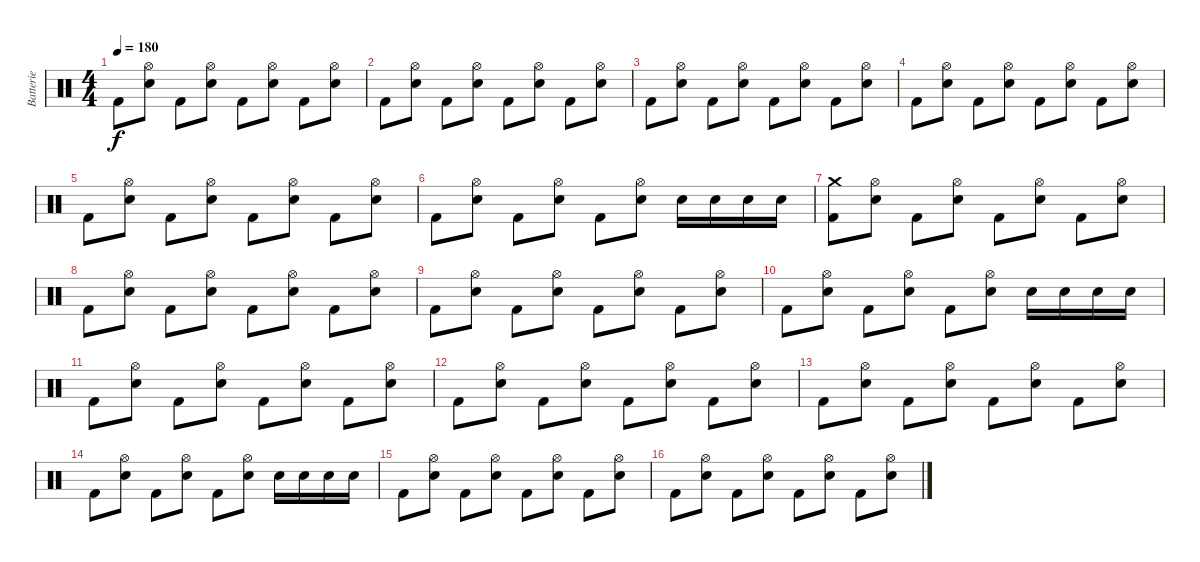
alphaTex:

\track ("Batterie" "Batterie") {instrument percussion}
\staff {score}
\articulation defaults
\ts (4 4)
\tempo 180
\clef neutral
\ks c "Kick (hit) 2".8{dy f}
("Electric Snare (hit)" "Hi-Hat (open)").8 "Kick (hit) 2".8 ("Electric Snare (hit)" "Hi-Hat (open)").8 "Kick (hit) 2".8 ("Electric Snare (hit)" "Hi-Hat (open)").8 "Kick (hit) 2".8 ("Electric Snare (hit)" "Hi-Hat (open)").8 |
"Kick (hit) 2".8 ("Electric Snare (hit)" "Hi-Hat (open)").8 "Kick (hit) 2".8 ("Electric Snare (hit)" "Hi-Hat (open)").8 "Kick (hit) 2".8 ("Electric Snare (hit)" "Hi-Hat (open)").8 "Kick (hit) 2".8 ("Electric Snare (hit)" "Hi-Hat (open)").8 |
"Kick (hit) 2".8 ("Electric Snare (hit)" "Hi-Hat (open)").8 "Kick (hit) 2".8 ("Electric Snare (hit)" "Hi-Hat (open)").8 "Kick (hit) 2".8 ("Electric Snare (hit)" "Hi-Hat (open)").8 "Kick (hit) 2".8 ("Electric Snare (hit)" "Hi-Hat (open)").8 |
"Kick (hit) 2".8 ("Electric Snare (hit)" "Hi-Hat (open)").8 "Kick (hit) 2".8 ("Electric Snare (hit)" "Hi-Hat (open)").8 "Kick (hit) 2".8 ("Electric Snare (hit)" "Hi-Hat (open)").8 "Kick (hit) 2".8 ("Electric Snare (hit)" "Hi-Hat (open)").8 |
"Kick (hit) 2".8 ("Electric Snare (hit)" "Hi-Hat (open)").8 "Kick (hit) 2".8 ("Electric Snare (hit)" "Hi-Hat (open)").8 "Kick (hit) 2".8 ("Electric Snare (hit)" "Hi-Hat (open)").8 "Kick (hit) 2".8 ("Electric Snare (hit)" "Hi-Hat (open)").8 |
"Kick (hit) 2".8 ("Electric Snare (hit)" "Hi-Hat (open)").8 "Kick (hit) 2".8 ("Electric Snare (hit)" "Hi-Hat (open)").8 "Kick (hit) 2".8 ("Electric Snare (hit)" "Hi-Hat (open)").8 "Electric Snare (hit)".16 "Electric Snare (hit)".16 "Electric Snare (hit)".16 "Electric Snare (hit)".16 |
("Kick (hit) 2" "Crash medium (hit)").8 ("Electric Snare (hit)" "Hi-Hat (open)").8 "Kick (hit) 2".8 ("Electric Snare (hit)" "Hi-Hat (open)").8 "Kick (hit) 2".8 ("Electric Snare (hit)" "Hi-Hat (open)").8 "Kick (hit) 2".8 ("Electric Snare (hit)" "Hi-Hat (open)").8 |
"Kick (hit) 2".8 ("Electric Snare (hit)" "Hi-Hat (open)").8 "Kick (hit) 2".8 ("Electric Snare (hit)" "Hi-Hat (open)").8 "Kick (hit) 2".8 ("Electric Snare (hit)" "Hi-Hat (open)").8 "Kick (hit) 2".8 ("Electric Snare (hit)" "Hi-Hat (open)").8 |
"Kick (hit) 2".8 ("Electric Snare (hit)" "Hi-Hat (open)").8 "Kick (hit) 2".8 ("Electric Snare (hit)" "Hi-Hat (open)").8 "Kick (hit) 2".8 ("Electric Snare (hit)" "Hi-Hat (open)").8 "Kick (hit) 2".8 ("Electric Snare (hit)" "Hi-Hat (open)").8 |
"Kick (hit) 2".8 ("Electric Snare (hit)" "Hi-Hat (open)").8 "Kick (hit) 2".8 ("Electric Snare (hit)" "Hi-Hat (open)").8 "Kick (hit) 2".8 ("Electric Snare (hit)" "Hi-Hat (open)").8 "Electric Snare (hit)".16 "Electric Snare (hit)".16 "Electric Snare (hit)".16 "Electric Snare (hit)".16 |
"Kick (hit) 2".8 ("Electric Snare (hit)" "Hi-Hat (open)").8 "Kick (hit) 2".8 ("Electric Snare (hit)" "Hi-Hat (open)").8 "Kick (hit) 2".8 ("Electric Snare (hit)" "Hi-Hat (open)").8 "Kick (hit) 2".8 ("Electric Snare (hit)" "Hi-Hat (open)").8 |
"Kick (hit) 2".8 ("Electric Snare (hit)" "Hi-Hat (open)").8 "Kick (hit) 2".8 ("Electric Snare (hit)" "Hi-Hat (open)").8 "Kick (hit) 2".8 ("Electric Snare (hit)" "Hi-Hat (open)").8 "Kick (hit) 2".8 ("Electric Snare (hit)" "Hi-Hat (open)").8 |
"Kick (hit) 2".8 ("Electric Snare (hit)" "Hi-Hat (open)").8 "Kick (hit) 2".8 ("Electric Snare (hit)" "Hi-Hat (open)").8 "Kick (hit) 2".8 ("Electric Snare (hit)" "Hi-Hat (open)").8 "Kick (hit) 2".8 ("Electric Snare (hit)" "Hi-Hat (open)").8 |
"Kick (hit) 2".8 ("Electric Snare (hit)" "Hi-Hat (open)").8 "Kick (hit) 2".8 ("Electric Snare (hit)" "Hi-Hat (open)").8 "Kick (hit) 2".8 ("Electric Snare (hit)" "Hi-Hat (open)").8 "Electric Snare (hit)".16 "Electric Snare (hit)".16 "Electric Snare (hit)".16 "Electric Snare (hit)".16 |
"Kick (hit) 2".8 ("Electric Snare (hit)" "Hi-Hat (open)").8 "Kick (hit) 2".8 ("Electric Snare (hit)" "Hi-Hat (open)").8 "Kick (hit) 2".8 ("Electric Snare (hit)" "Hi-Hat (open)").8 "Kick (hit) 2".8 ("Electric Snare (hit)" "Hi-Hat (open)").8 |
"Kick (hit) 2".8 ("Electric Snare (hit)" "Hi-Hat (open)").8 "Kick (hit) 2".8 ("Electric Snare (hit)" "Hi-Hat (open)").8 "Kick (hit) 2".8 ("Electric Snare (hit)" "Hi-Hat (open)").8 "Kick (hit) 2".8 ("Electric Snare (hit)" "Hi-Hat (open)").8
